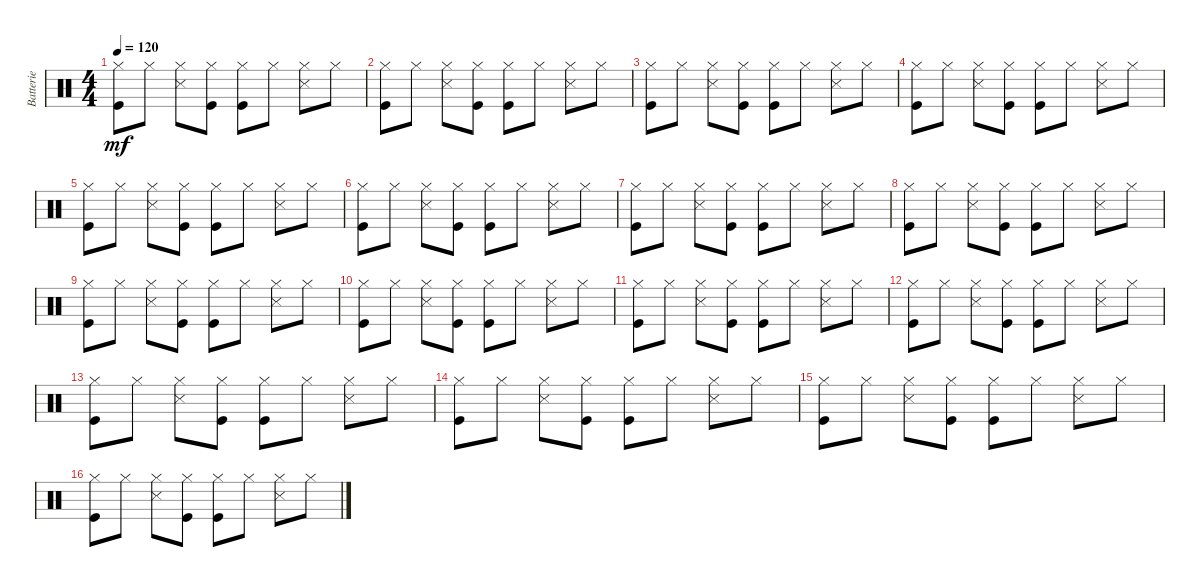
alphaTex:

\track ("Batterie" "Batterie") {instrument percussion}
\staff {score}
\articulation defaults
\ts (4 4)
\tempo 120
\clef neutral
\ks c
("Hi-Hat (closed)" "Kick (hit)").8{dy mf} "Hi-Hat (closed)".8 ("Hi-Hat (closed)" "Snare (side stick) 3").8 ("Hi-Hat (closed)" "Kick (hit)").8 ("Hi-Hat (closed)" "Kick (hit)").8 "Hi-Hat (closed)".8 ("Hi-Hat (closed)" "Snare (side stick) 3").8 "Hi-Hat (closed)".8 |
("Hi-Hat (closed)" "Kick (hit)").8 "Hi-Hat (closed)".8 ("Hi-Hat (closed)" "Snare (side stick) 3").8 ("Hi-Hat (closed)" "Kick (hit)").8 ("Hi-Hat (closed)" "Kick (hit)").8 "Hi-Hat (closed)".8 ("Hi-Hat (closed)" "Snare (side stick) 3").8 "Hi-Hat (closed)".8 |
("Hi-Hat (closed)" "Kick (hit)").8 "Hi-Hat (closed)".8 ("Hi-Hat (closed)" "Snare (side stick) 3").8 ("Hi-Hat (closed)" "Kick (hit)").8 ("Hi-Hat (closed)" "Kick (hit)").8 "Hi-Hat (closed)".8 ("Hi-Hat (closed)" "Snare (side stick) 3").8 "Hi-Hat (closed)".8 |
("Hi-Hat (closed)" "Kick (hit)").8 "Hi-Hat (closed)".8 ("Hi-Hat (closed)" "Snare (side stick) 3").8 ("Hi-Hat (closed)" "Kick (hit)").8 ("Hi-Hat (closed)" "Kick (hit)").8 "Hi-Hat (closed)".8 ("Hi-Hat (closed)" "Snare (side stick) 3").8 "Hi-Hat (closed)".8 |
("Hi-Hat (closed)" "Kick (hit)").8 "Hi-Hat (closed)".8 ("Hi-Hat (closed)" "Snare (side stick) 3").8 ("Hi-Hat (closed)" "Kick (hit)").8 ("Hi-Hat (closed)" "Kick (hit)").8 "Hi-Hat (closed)".8 ("Hi-Hat (closed)" "Snare (side stick) 3").8 "Hi-Hat (closed)".8 |
("Hi-Hat (closed)" "Kick (hit)").8 "Hi-Hat (closed)".8 ("Hi-Hat (closed)" "Snare (side stick) 3").8 ("Hi-Hat (closed)" "Kick (hit)").8 ("Hi-Hat (closed)" "Kick (hit)").8 "Hi-Hat (closed)".8 ("Hi-Hat (closed)" "Snare (side stick) 3").8 "Hi-Hat (closed)".8 |
("Hi-Hat (closed)" "Kick (hit)").8 "Hi-Hat (closed)".8 ("Hi-Hat (closed)" "Snare (side stick) 3").8 ("Hi-Hat (closed)" "Kick (hit)").8 ("Hi-Hat (closed)" "Kick (hit)").8 "Hi-Hat (closed)".8 ("Hi-Hat (closed)" "Snare (side stick) 3").8 "Hi-Hat (closed)".8 |
("Hi-Hat (closed)" "Kick (hit)").8 "Hi-Hat (closed)".8 ("Hi-Hat (closed)" "Snare (side stick) 3").8 ("Hi-Hat (closed)" "Kick (hit)").8 ("Hi-Hat (closed)" "Kick (hit)").8 "Hi-Hat (closed)".8 ("Hi-Hat (closed)" "Snare (side stick) 3").8 "Hi-Hat (closed)".8 |
("Hi-Hat (closed)" "Kick (hit)").8 "Hi-Hat (closed)".8 ("Hi-Hat (closed)" "Snare (side stick) 3").8 ("Hi-Hat (closed)" "Kick (hit)").8 ("Hi-Hat (closed)" "Kick (hit)").8 "Hi-Hat (closed)".8 ("Hi-Hat (closed)" "Snare (side stick) 3").8 "Hi-Hat (closed)".8 |
("Hi-Hat (closed)" "Kick (hit)").8 "Hi-Hat (closed)".8 ("Hi-Hat (closed)" "Snare (side stick) 3").8 ("Hi-Hat (closed)" "Kick (hit)").8 ("Hi-Hat (closed)" "Kick (hit)").8 "Hi-Hat (closed)".8 ("Hi-Hat (closed)" "Snare (side stick) 3").8 "Hi-Hat (closed)".8 |
("Hi-Hat (closed)" "Kick (hit)").8 "Hi-Hat (closed)".8 ("Hi-Hat (closed)" "Snare (side stick) 3").8 ("Hi-Hat (closed)" "Kick (hit)").8 ("Hi-Hat (closed)" "Kick (hit)").8 "Hi-Hat (closed)".8 ("Hi-Hat (closed)" "Snare (side stick) 3").8 "Hi-Hat (closed)".8 |
("Hi-Hat (closed)" "Kick (hit)").8 "Hi-Hat (closed)".8 ("Hi-Hat (closed)" "Snare (side stick) 3").8 ("Hi-Hat (closed)" "Kick (hit)").8 ("Hi-Hat (closed)" "Kick (hit)").8 "Hi-Hat (closed)".8 ("Hi-Hat (closed)" "Snare (side stick) 3").8 "Hi-Hat (closed)".8 |
("Hi-Hat (closed)" "Kick (hit)").8 "Hi-Hat (closed)".8 ("Hi-Hat (closed)" "Snare (side stick) 3").8 ("Hi-Hat (closed)" "Kick (hit)").8 ("Hi-Hat (closed)" "Kick (hit)").8 "Hi-Hat (closed)".8 ("Hi-Hat (closed)" "Snare (side stick) 3").8 "Hi-Hat (closed)".8 |
("Hi-Hat (closed)" "Kick (hit)").8 "Hi-Hat (closed)".8 ("Hi-Hat (closed)" "Snare (side stick) 3").8 ("Hi-Hat (closed)" "Kick (hit)").8 ("Hi-Hat (closed)" "Kick (hit)").8 "Hi-Hat (closed)".8 ("Hi-Hat (closed)" "Snare (side stick) 3").8 "Hi-Hat (closed)".8 |
("Hi-Hat (closed)" "Kick (hit)").8 "Hi-Hat (closed)".8 ("Hi-Hat (closed)" "Snare (side stick) 3").8 ("Hi-Hat (closed)" "Kick (hit)").8 ("Hi-Hat (closed)" "Kick (hit)").8 "Hi-Hat (closed)".8 ("Hi-Hat (closed)" "Snare (side stick) 3").8 "Hi-Hat (closed)".8 |
("Hi-Hat (closed)" "Kick (hit)").8 "Hi-Hat (closed)".8 ("Hi-Hat (closed)" "Snare (side stick) 3").8 ("Hi-Hat (closed)" "Kick (hit)").8 ("Hi-Hat (closed)" "Kick (hit)").8 "Hi-Hat (closed)".8 ("Hi-Hat (closed)" "Snare (side stick) 3").8 "Hi-Hat (closed)".8
